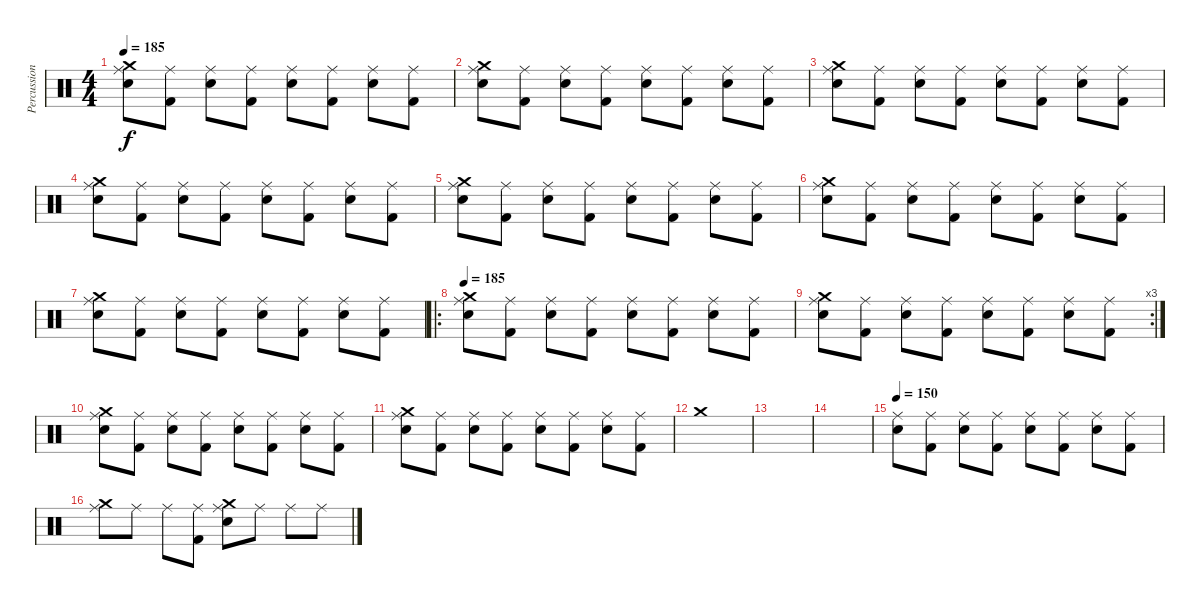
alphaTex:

\track ("Percussion" "Percussion") {instrument percussion}
\staff {score}
\articulation defaults
\ts (4 4)
\tempo 185
\clef neutral
\ks c
("Crash medium (hit)" "Snare (hit) 2" "Ride (middle)").8{dy f} ("Kick (hit) 2" "Ride (middle)").8 ("Snare (hit) 2" "Ride (middle)").8 ("Kick (hit) 2" "Ride (middle)").8 ("Snare (hit) 2" "Ride (middle)").8 ("Kick (hit) 2" "Ride (middle)").8 ("Snare (hit) 2" "Ride (middle)").8 ("Kick (hit) 2" "Ride (middle)").8 |
("Crash medium (hit)" "Snare (hit) 2" "Ride (middle)").8 ("Kick (hit) 2" "Ride (middle)").8 ("Snare (hit) 2" "Ride (middle)").8 ("Kick (hit) 2" "Ride (middle)").8 ("Snare (hit) 2" "Ride (middle)").8 ("Kick (hit) 2" "Ride (middle)").8 ("Snare (hit) 2" "Ride (middle)").8 ("Kick (hit) 2" "Ride (middle)").8 |
("Crash medium (hit)" "Snare (hit) 2" "Ride (middle)").8 ("Kick (hit) 2" "Ride (middle)").8 ("Snare (hit) 2" "Ride (middle)").8 ("Kick (hit) 2" "Ride (middle)").8 ("Snare (hit) 2" "Ride (middle)").8 ("Kick (hit) 2" "Ride (middle)").8 ("Snare (hit) 2" "Ride (middle)").8 ("Kick (hit) 2" "Ride (middle)").8 |
("Crash medium (hit)" "Snare (hit) 2" "Ride (middle)").8 ("Kick (hit) 2" "Ride (middle)").8 ("Snare (hit) 2" "Ride (middle)").8 ("Kick (hit) 2" "Ride (middle)").8 ("Snare (hit) 2" "Ride (middle)").8 ("Kick (hit) 2" "Ride (middle)").8 ("Snare (hit) 2" "Ride (middle)").8 ("Kick (hit) 2" "Ride (middle)").8 |
("Crash medium (hit)" "Snare (hit) 2" "Ride (middle)").8 ("Kick (hit) 2" "Ride (middle)").8 ("Snare (hit) 2" "Ride (middle)").8 ("Kick (hit) 2" "Ride (middle)").8 ("Snare (hit) 2" "Ride (middle)").8 ("Kick (hit) 2" "Ride (middle)").8 ("Snare (hit) 2" "Ride (middle)").8 ("Kick (hit) 2" "Ride (middle)").8 |
("Crash medium (hit)" "Snare (hit) 2" "Ride (middle)").8 ("Kick (hit) 2" "Ride (middle)").8 ("Snare (hit) 2" "Ride (middle)").8 ("Kick (hit) 2" "Ride (middle)").8 ("Snare (hit) 2" "Ride (middle)").8 ("Kick (hit) 2" "Ride (middle)").8 ("Snare (hit) 2" "Ride (middle)").8 ("Kick (hit) 2" "Ride (middle)").8 |
("Crash medium (hit)" "Snare (hit) 2" "Ride (middle)").8 ("Kick (hit) 2" "Ride (middle)").8 ("Snare (hit) 2" "Ride (middle)").8 ("Kick (hit) 2" "Ride (middle)").8 ("Snare (hit) 2" "Ride (middle)").8 ("Kick (hit) 2" "Ride (middle)").8 ("Snare (hit) 2" "Ride (middle)").8 ("Kick (hit) 2" "Ride (middle)").8 |
\ro
\tempo 185
("Crash medium (hit)" "Snare (hit) 2" "Ride (middle)").8 ("Kick (hit) 2" "Ride (middle)").8 ("Snare (hit) 2" "Ride (middle)").8 ("Kick (hit) 2" "Ride (middle)").8 ("Snare (hit) 2" "Ride (middle)").8 ("Kick (hit) 2" "Ride (middle)").8 ("Snare (hit) 2" "Ride (middle)").8 ("Kick (hit) 2" "Ride (middle)").8 |
\rc 3
("Crash medium (hit)" "Snare (hit) 2" "Ride (middle)").8 ("Kick (hit) 2" "Ride (middle)").8 ("Snare (hit) 2" "Ride (middle)").8 ("Kick (hit) 2" "Ride (middle)").8 ("Snare (hit) 2" "Ride (middle)").8 ("Kick (hit) 2" "Ride (middle)").8 ("Snare (hit) 2" "Ride (middle)").8 ("Kick (hit) 2" "Ride (middle)").8 |
("Crash medium (hit)" "Snare (hit) 2" "Ride (middle)").8 ("Kick (hit) 2" "Ride (middle)").8 ("Snare (hit) 2" "Ride (middle)").8 ("Kick (hit) 2" "Ride (middle)").8 ("Snare (hit) 2" "Ride (middle)").8 ("Kick (hit) 2" "Ride (middle)").8 ("Snare (hit) 2" "Ride (middle)").8 ("Kick (hit) 2" "Ride (middle)").8 |
("Crash medium (hit)" "Snare (hit) 2" "Ride (middle)").8 ("Kick (hit) 2" "Ride (middle)").8 ("Snare (hit) 2" "Ride (middle)").8 ("Kick (hit) 2" "Ride (middle)").8 ("Snare (hit) 2" "Ride (middle)").8 ("Kick (hit) 2" "Ride (middle)").8 ("Snare (hit) 2" "Ride (middle)").8 ("Kick (hit) 2" "Ride (middle)").8 |
"Crash medium (hit)".1 |
|
|
\tempo 150
("Snare (hit) 2" "Ride (middle)").8 ("Kick (hit) 2" "Ride (middle)").8 ("Snare (hit) 2" "Ride (middle)").8 ("Kick (hit) 2" "Ride (middle)").8 ("Snare (hit) 2" "Ride (middle)").8 ("Kick (hit) 2" "Ride (middle)").8 ("Snare (hit) 2" "Ride (middle)").8 ("Kick (hit) 2" "Ride (middle)").8 |
("Crash medium (hit)" "Ride (middle)").8 "Ride (middle)".8 "Ride (middle)".8 ("Kick (hit) 2" "Ride (middle)").8 ("Crash medium (hit)" "Snare (hit) 2" "Ride (middle)").8 "Ride (middle)".8 "Ride (middle)".8 "Ride (middle)".8
